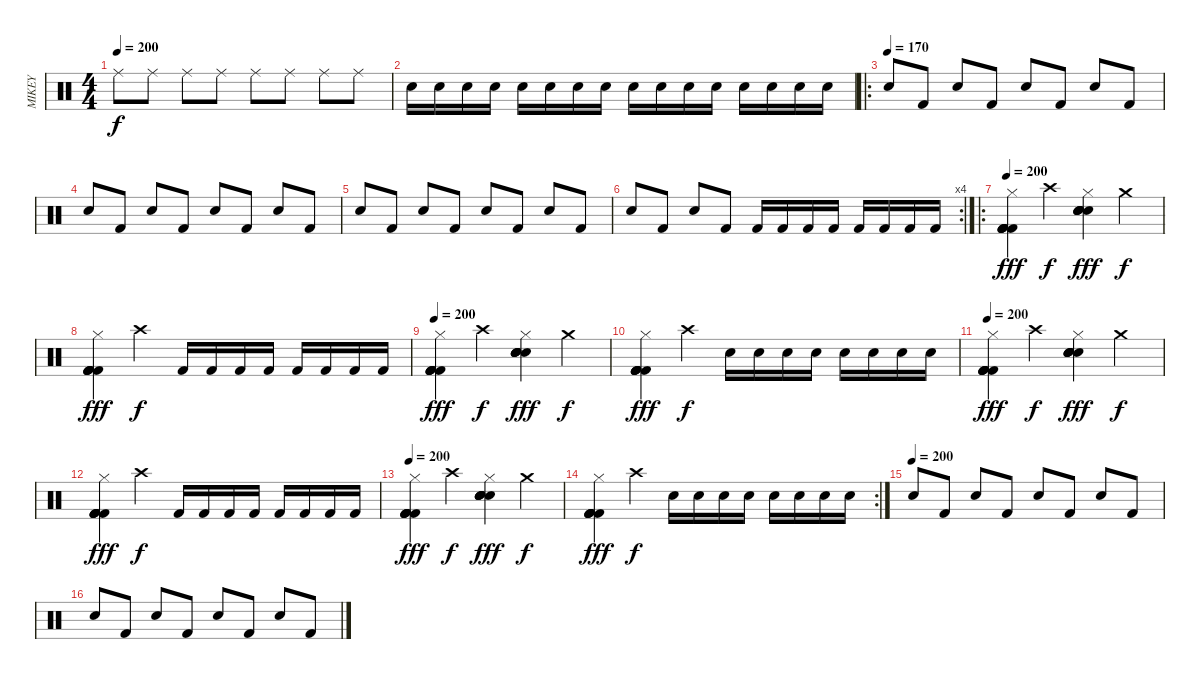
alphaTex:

\track ("MIKEY" "MIKEY") {instrument percussion}
\staff {score}
\articulation defaults
\ts (4 4)
\tempo 200
\clef neutral
\ks c "Ride (middle)".8{dy f} "Ride (middle)".8 "Ride (middle)".8 "Ride (middle)".8 "Ride (middle)".8 "Ride (middle)".8 "Ride (middle)".8 "Ride (middle)".8
|
"Electric Snare (hit)".16 "Electric Snare (hit)".16 "Electric Snare (hit)".16 "Electric Snare (hit)".16 "Electric Snare (hit)".16 "Electric Snare (hit)".16 "Electric Snare (hit)".16 "Electric Snare (hit)".16 "Electric Snare (hit)".16 "Electric Snare (hit)".16 "Electric Snare (hit)".16 "Electric Snare (hit)".16 "Electric Snare (hit)".16 "Electric Snare (hit)".16 "Electric Snare (hit)".16 "Electric Snare (hit)".16 |
\ro
\tempo (170)
"Electric Snare (hit)".8 "Kick (hit) 2".8 "Electric Snare (hit)".8 "Kick (hit) 2".8 "Electric Snare (hit)".8 "Kick (hit) 2".8 "Electric Snare (hit)".8 "Kick (hit) 2".8 |
"Electric Snare (hit)".8 "Kick (hit) 2".8 "Electric Snare (hit)".8 "Kick (hit) 2".8 "Electric Snare (hit)".8 "Kick (hit) 2".8 "Electric Snare (hit)".8 "Kick (hit) 2".8 |
"Electric Snare (hit)".8 "Kick (hit) 2".8 "Electric Snare (hit)".8 "Kick (hit) 2".8 "Electric Snare (hit)".8 "Kick (hit) 2".8 "Electric Snare (hit)".8 "Kick (hit) 2".8 |
\rc 4 "Electric Snare (hit)".8 "Kick (hit) 2".8 "Electric Snare (hit)".8 "Kick (hit) 2".8 "Kick (hit) 2".16 "Kick (hit) 2".16 "Kick (hit) 2".16 "Kick (hit) 2".16 "Kick (hit) 2".16 "Kick (hit) 2".16 "Kick (hit) 2".16 "Kick (hit) 2".16
|
\ro
\tempo 200
("Kick (hit) 2" "Kick (hit) 2" "Kick (hit) 2" "Kick (hit) 2" "Kick (hit) 2" "Hi-Hat (closed)").4{dy fff} "Crash high (hit)".4{dy f} ("Snare (hit) 2" "Snare (hit) 2" "Snare (hit) 2" "Snare (hit) 2" "Snare (hit) 2" "Hi-Hat (closed)").4{dy fff} "Crash medium (hit)".4{dy f} |
("Kick (hit) 2" "Kick (hit) 2" "Kick (hit) 2" "Kick (hit) 2" "Kick (hit) 2" "Hi-Hat (closed)").4{dy fff} "Crash high (hit)".4{dy f} "Kick (hit) 2".16 "Kick (hit) 2".16 "Kick (hit) 2".16 "Kick (hit) 2".16 "Kick (hit) 2".16 "Kick (hit) 2".16 "Kick (hit) 2".16 "Kick (hit) 2".16 |
\tempo 200
("Kick (hit) 2" "Kick (hit) 2" "Kick (hit) 2" "Kick (hit) 2" "Kick (hit) 2" "Hi-Hat (closed)").4{dy fff} "Crash high (hit)".4{dy f} ("Snare (hit) 2" "Snare (hit) 2" "Snare (hit) 2" "Snare (hit) 2" "Snare (hit) 2" "Hi-Hat (closed)").4{dy fff} "Crash medium (hit)".4{dy f} |
("Kick (hit) 2" "Kick (hit) 2" "Kick (hit) 2" "Kick (hit) 2" "Kick (hit) 2" "Hi-Hat (closed)").4{dy fff} "Crash high (hit)".4{dy f} "Electric Snare (hit)".16 "Electric Snare (hit)".16 "Electric Snare (hit)".16 "Electric Snare (hit)".16 "Electric Snare (hit)".16 "Electric Snare (hit)".16 "Electric Snare (hit)".16 "Electric Snare (hit)".16 |
\tempo 200
("Kick (hit) 2" "Kick (hit) 2" "Kick (hit) 2" "Kick (hit) 2" "Kick (hit) 2" "Hi-Hat (closed)").4{dy fff} "Crash high (hit)".4{dy f} ("Snare (hit) 2" "Snare (hit) 2" "Snare (hit) 2" "Snare (hit) 2" "Snare (hit) 2" "Hi-Hat (closed)").4{dy fff} "Crash medium (hit)".4{dy f} |
("Kick (hit) 2" "Kick (hit) 2" "Kick (hit) 2" "Kick (hit) 2" "Kick (hit) 2" "Hi-Hat (closed)").4{dy fff} "Crash high (hit)".4{dy f} "Kick (hit) 2".16 "Kick (hit) 2".16 "Kick (hit) 2".16 "Kick (hit) 2".16 "Kick (hit) 2".16 "Kick (hit) 2".16 "Kick (hit) 2".16 "Kick (hit) 2".16 |
\tempo 200
("Kick (hit) 2" "Kick (hit) 2" "Kick (hit) 2" "Kick (hit) 2" "Kick (hit) 2" "Hi-Hat (closed)").4{dy fff} "Crash high (hit)".4{dy f} ("Snare (hit) 2" "Snare (hit) 2" "Snare (hit) 2" "Snare (hit) 2" "Snare (hit) 2" "Hi-Hat (closed)").4{dy fff} "Crash medium (hit)".4{dy f} |
\rc 2
("Kick (hit) 2" "Kick (hit) 2" "Kick (hit) 2" "Kick (hit) 2" "Kick (hit) 2" "Hi-Hat (closed)").4{dy fff} "Crash high (hit)".4{dy f} "Electric Snare (hit)".16 "Electric Snare (hit)".16 "Electric Snare (hit)".16 "Electric Snare (hit)".16 "Electric Snare (hit)".16 "Electric Snare (hit)".16 "Electric Snare (hit)".16 "Electric Snare (hit)".16 |
\tempo (200)
"Electric Snare (hit)".8 "Kick (hit) 2".8 "Electric Snare (hit)".8 "Kick (hit) 2".8 "Electric Snare (hit)".8 "Kick (hit) 2".8 "Electric Snare (hit)".8 "Kick (hit) 2".8 |
"Electric Snare (hit)".8 "Kick (hit) 2".8 "Electric Snare (hit)".8 "Kick (hit) 2".8 "Electric Snare (hit)".8 "Kick (hit) 2".8 "Electric Snare (hit)".8 "Kick (hit) 2".8
